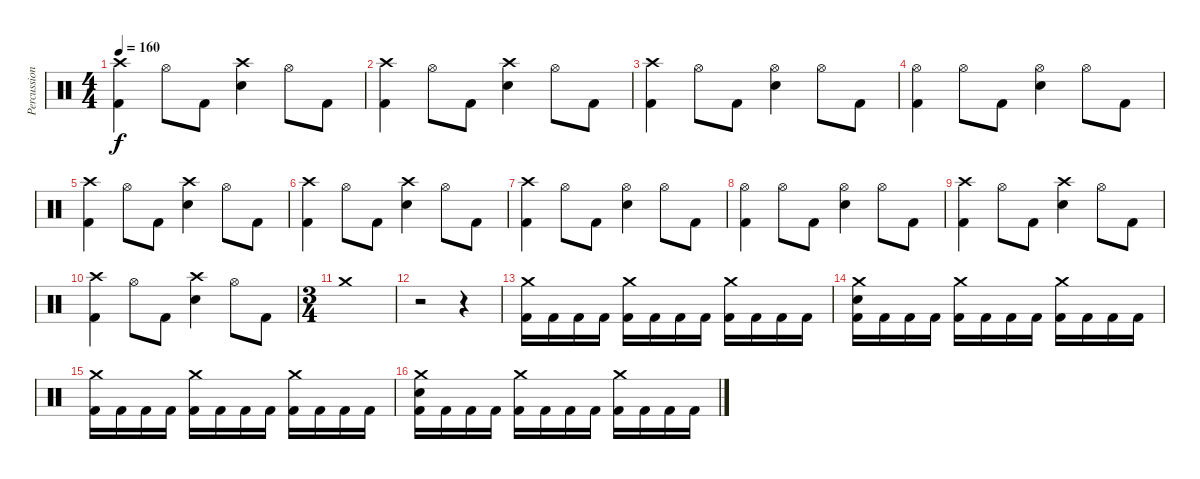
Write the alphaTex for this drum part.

\track ("Percussion" "Percussion") {instrument percussion}
\staff {score}
\articulation defaults
\ts (4 4)
\tempo 160
\clef neutral
\ks c
("Crash high (hit)" "Kick (hit) 2").4{dy f} "Hi-Hat (open)".8 "Kick (hit) 2".8 ("Crash high (hit)" "Electric Snare (hit)").4 "Hi-Hat (open)".8 "Kick (hit) 2".8 |
("Crash high (hit)" "Kick (hit) 2").4 "Hi-Hat (open)".8 "Kick (hit) 2".8 ("Crash high (hit)" "Electric Snare (hit)").4 "Hi-Hat (open)".8 "Kick (hit) 2".8 |
("Crash high (hit)" "Kick (hit) 2").4 "Hi-Hat (open)".8 "Kick (hit) 2".8 ("Hi-Hat (open)" "Electric Snare (hit)").4 "Hi-Hat (open)".8 "Kick (hit) 2".8 |
("Hi-Hat (open)" "Kick (hit) 2").4 "Hi-Hat (open)".8 "Kick (hit) 2".8 ("Hi-Hat (open)" "Electric Snare (hit)").4 "Hi-Hat (open)".8 "Kick (hit) 2".8 |
("Crash high (hit)" "Kick (hit) 2").4 "Hi-Hat (open)".8 "Kick (hit) 2".8 ("Crash high (hit)" "Electric Snare (hit)").4 "Hi-Hat (open)".8 "Kick (hit) 2".8 |
("Crash high (hit)" "Kick (hit) 2").4 "Hi-Hat (open)".8 "Kick (hit) 2".8 ("Crash high (hit)" "Electric Snare (hit)").4 "Hi-Hat (open)".8 "Kick (hit) 2".8 |
("Crash high (hit)" "Kick (hit) 2").4 "Hi-Hat (open)".8 "Kick (hit) 2".8 ("Hi-Hat (open)" "Electric Snare (hit)").4 "Hi-Hat (open)".8 "Kick (hit) 2".8 |
("Hi-Hat (open)" "Kick (hit) 2").4 "Hi-Hat (open)".8 "Kick (hit) 2".8 ("Hi-Hat (open)" "Electric Snare (hit)").4 "Hi-Hat (open)".8 "Kick (hit) 2".8 |
("Crash high (hit)" "Kick (hit) 2").4 "Hi-Hat (open)".8 "Kick (hit) 2".8 ("Crash high (hit)" "Electric Snare (hit)").4 "Hi-Hat (open)".8 "Kick (hit) 2".8 |
("Crash high (hit)" "Kick (hit) 2").4 "Hi-Hat (open)".8 "Kick (hit) 2".8 ("Crash high (hit)" "Electric Snare (hit)").4 "Hi-Hat (open)".8 "Kick (hit) 2".8 |
\ts (3 4)
"Crash medium (hit)".1 |
r.2 r.4 |
("Crash medium (hit)" "Kick (hit) 2").16 "Kick (hit) 2".16 "Kick (hit) 2".16 "Kick (hit) 2".16 ("Crash medium (hit)" "Kick (hit) 2").16 "Kick (hit) 2".16 "Kick (hit) 2".16 "Kick (hit) 2".16 ("Crash medium (hit)" "Kick (hit) 2").16 "Kick (hit) 2".16 "Kick (hit) 2".16 "Kick (hit) 2".16 |
("Crash medium (hit)" "Electric Snare (hit)" "Kick (hit) 2").16 "Kick (hit) 2".16 "Kick (hit) 2".16 "Kick (hit) 2".16 ("Crash medium (hit)" "Kick (hit) 2").16 "Kick (hit) 2".16 "Kick (hit) 2".16 "Kick (hit) 2".16 ("Crash medium (hit)" "Kick (hit) 2").16 "Kick (hit) 2".16 "Kick (hit) 2".16 "Kick (hit) 2".16 |
("Crash medium (hit)" "Kick (hit) 2").16 "Kick (hit) 2".16 "Kick (hit) 2".16 "Kick (hit) 2".16 ("Crash medium (hit)" "Kick (hit) 2").16 "Kick (hit) 2".16 "Kick (hit) 2".16 "Kick (hit) 2".16 ("Crash medium (hit)" "Kick (hit) 2").16 "Kick (hit) 2".16 "Kick (hit) 2".16 "Kick (hit) 2".16 |
("Crash medium (hit)" "Electric Snare (hit)" "Kick (hit) 2").16 "Kick (hit) 2".16 "Kick (hit) 2".16 "Kick (hit) 2".16 ("Crash medium (hit)" "Kick (hit) 2").16 "Kick (hit) 2".16 "Kick (hit) 2".16 "Kick (hit) 2".16 ("Crash medium (hit)" "Kick (hit) 2").16 "Kick (hit) 2".16 "Kick (hit) 2".16 "Kick (hit) 2".16
